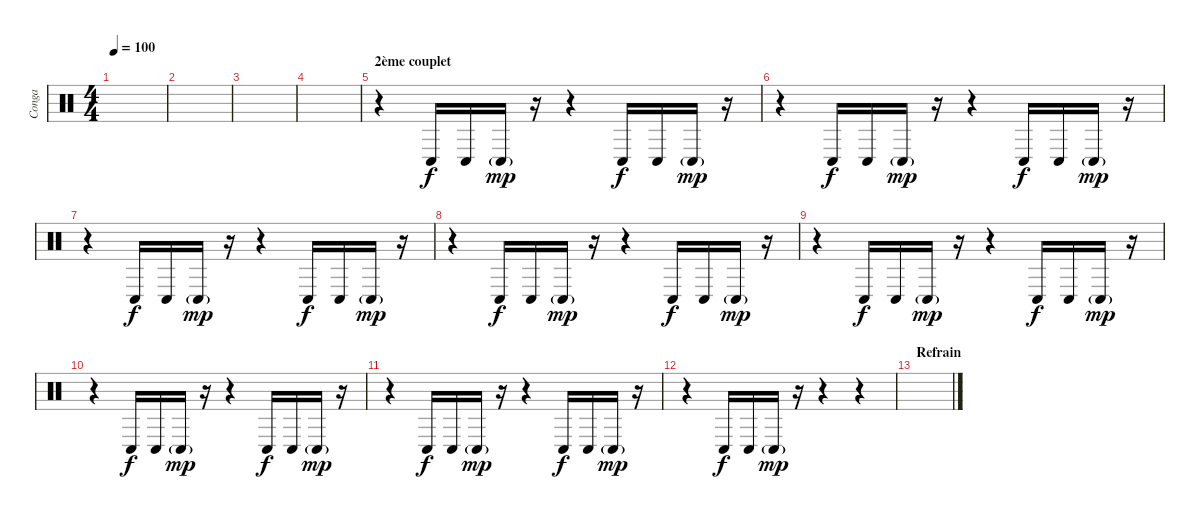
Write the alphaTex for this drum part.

\track ("Conga" "Conga") {instrument percussion}
\staff {score}
\articulation defaults
\ts (4 4)
\tempo 100
\clef neutral
\ks c
|
|
|
|
\section ("" "2ème couplet")
r.4 "Conga low (hit)".16{dy f} "Conga low (hit)".16 "Conga low (hit)"{g}.16{dy mp} r.16 r.4 "Conga low (hit)".16{dy f} "Conga low (hit)".16 "Conga low (hit)"{g}.16{dy mp} r.16 |
r.4 "Conga low (hit)".16{dy f} "Conga low (hit)".16 "Conga low (hit)"{g}.16{dy mp} r.16 r.4 "Conga low (hit)".16{dy f} "Conga low (hit)".16 "Conga low (hit)"{g}.16{dy mp} r.16 |
r.4 "Conga low (hit)".16{dy f} "Conga low (hit)".16 "Conga low (hit)"{g}.16{dy mp} r.16 r.4 "Conga low (hit)".16{dy f} "Conga low (hit)".16 "Conga low (hit)"{g}.16{dy mp} r.16 |
r.4 "Conga low (hit)".16{dy f} "Conga low (hit)".16 "Conga low (hit)"{g}.16{dy mp} r.16 r.4 "Conga low (hit)".16{dy f} "Conga low (hit)".16 "Conga low (hit)"{g}.16{dy mp} r.16 |
r.4 "Conga low (hit)".16{dy f} "Conga low (hit)".16 "Conga low (hit)"{g}.16{dy mp} r.16 r.4 "Conga low (hit)".16{dy f} "Conga low (hit)".16 "Conga low (hit)"{g}.16{dy mp} r.16 |
r.4 "Conga low (hit)".16{dy f} "Conga low (hit)".16 "Conga low (hit)"{g}.16{dy mp} r.16 r.4 "Conga low (hit)".16{dy f} "Conga low (hit)".16 "Conga low (hit)"{g}.16{dy mp} r.16 |
r.4 "Conga low (hit)".16{dy f} "Conga low (hit)".16 "Conga low (hit)"{g}.16{dy mp} r.16 r.4 "Conga low (hit)".16{dy f} "Conga low (hit)".16 "Conga low (hit)"{g}.16{dy mp} r.16 |
r.4 "Conga low (hit)".16{dy f} "Conga low (hit)".16 "Conga low (hit)"{g}.16{dy mp} r.16 r.4 r.4 |
\section ("" "Refrain")
